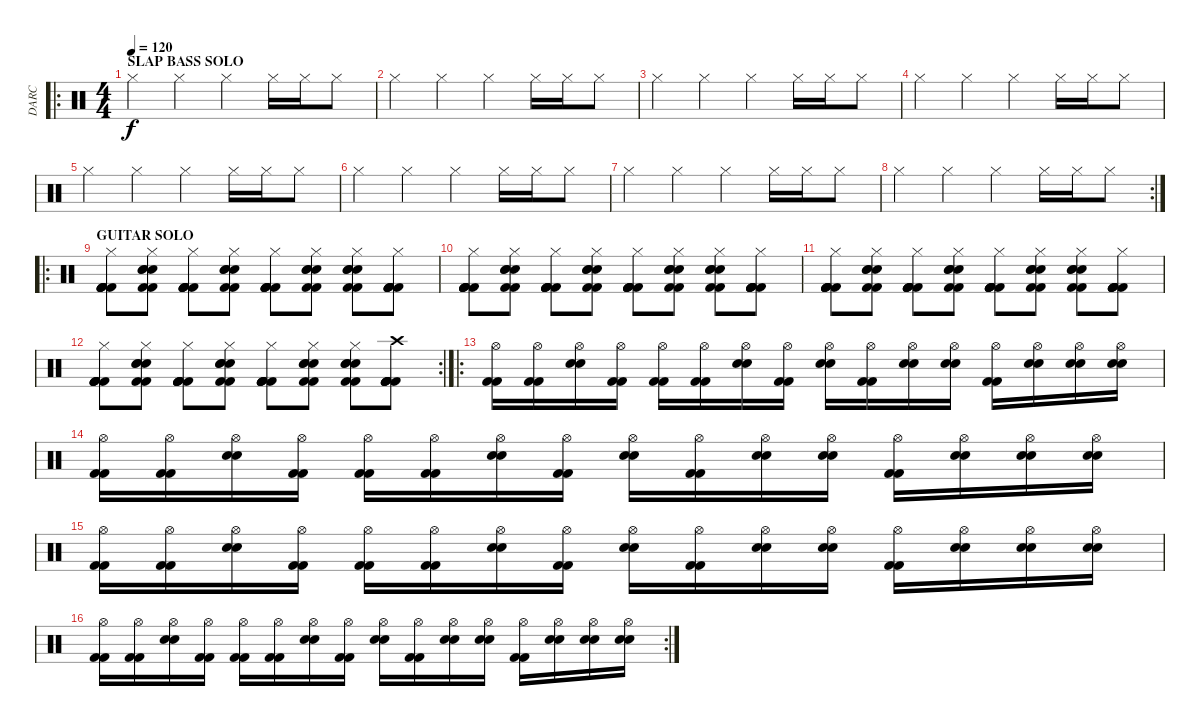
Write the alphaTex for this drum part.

\track ("DARC" "DARC") {instrument percussion}
\staff {score}
\articulation defaults
\ro
\ts (4 4)
\section ("" "SLAP BASS SOLO")
\tempo 120
\clef neutral
\ks c "Hi-Hat (closed)".4{dy f} "Hi-Hat (closed)".4 "Hi-Hat (closed)".4 "Hi-Hat (closed)".16 "Hi-Hat (closed)".16 "Hi-Hat (closed)".8
|
"Hi-Hat (closed)".4 "Hi-Hat (closed)".4 "Hi-Hat (closed)".4 "Hi-Hat (closed)".16 "Hi-Hat (closed)".16 "Hi-Hat (closed)".8 |
"Hi-Hat (closed)".4 "Hi-Hat (closed)".4 "Hi-Hat (closed)".4 "Hi-Hat (closed)".16 "Hi-Hat (closed)".16 "Hi-Hat (closed)".8 |
"Hi-Hat (closed)".4 "Hi-Hat (closed)".4 "Hi-Hat (closed)".4 "Hi-Hat (closed)".16 "Hi-Hat (closed)".16 "Hi-Hat (closed)".8 |
"Hi-Hat (closed)".4 "Hi-Hat (closed)".4 "Hi-Hat (closed)".4 "Hi-Hat (closed)".16 "Hi-Hat (closed)".16 "Hi-Hat (closed)".8 |
"Hi-Hat (closed)".4 "Hi-Hat (closed)".4 "Hi-Hat (closed)".4 "Hi-Hat (closed)".16 "Hi-Hat (closed)".16 "Hi-Hat (closed)".8 |
"Hi-Hat (closed)".4 "Hi-Hat (closed)".4 "Hi-Hat (closed)".4 "Hi-Hat (closed)".16 "Hi-Hat (closed)".16 "Hi-Hat (closed)".8 |
\rc 2 "Hi-Hat (closed)".4 "Hi-Hat (closed)".4 "Hi-Hat (closed)".4 "Hi-Hat (closed)".16 "Hi-Hat (closed)".16 "Hi-Hat (closed)".8
|
\ro
\section ("" "GUITAR SOLO")
("Kick (hit) 2" "Hi-Hat (closed)" "Kick (hit) 2" "Kick (hit) 2" "Kick (hit) 2" "Kick (hit) 2").8 ("Kick (hit) 2" "Hi-Hat (closed)" "Electric Snare (hit)" "Electric Snare (hit)" "Electric Snare (hit)" "Kick (hit) 2").8 ("Kick (hit) 2" "Hi-Hat (closed)" "Kick (hit) 2" "Kick (hit) 2" "Kick (hit) 2" "Kick (hit) 2").8 ("Kick (hit) 2" "Hi-Hat (closed)" "Electric Snare (hit)" "Electric Snare (hit)" "Electric Snare (hit)" "Kick (hit) 2").8 ("Kick (hit) 2" "Hi-Hat (closed)" "Kick (hit) 2" "Kick (hit) 2" "Kick (hit) 2" "Kick (hit) 2").8 ("Kick (hit) 2" "Hi-Hat (closed)" "Electric Snare (hit)" "Electric Snare (hit)" "Electric Snare (hit)" "Kick (hit) 2").8 ("Kick (hit) 2" "Hi-Hat (closed)" "Electric Snare (hit)" "Electric Snare (hit)" "Electric Snare (hit)" "Kick (hit) 2").8 ("Kick (hit) 2" "Hi-Hat (closed)" "Kick (hit) 2" "Kick (hit) 2" "Kick (hit) 2" "Kick (hit) 2").8 |
("Kick (hit) 2" "Hi-Hat (closed)" "Kick (hit) 2" "Kick (hit) 2" "Kick (hit) 2" "Kick (hit) 2").8 ("Kick (hit) 2" "Hi-Hat (closed)" "Electric Snare (hit)" "Electric Snare (hit)" "Electric Snare (hit)" "Kick (hit) 2").8 ("Kick (hit) 2" "Hi-Hat (closed)" "Kick (hit) 2" "Kick (hit) 2" "Kick (hit) 2" "Kick (hit) 2").8 ("Kick (hit) 2" "Hi-Hat (closed)" "Electric Snare (hit)" "Electric Snare (hit)" "Electric Snare (hit)" "Kick (hit) 2").8 ("Kick (hit) 2" "Hi-Hat (closed)" "Kick (hit) 2" "Kick (hit) 2" "Kick (hit) 2" "Kick (hit) 2").8 ("Kick (hit) 2" "Hi-Hat (closed)" "Electric Snare (hit)" "Electric Snare (hit)" "Electric Snare (hit)" "Kick (hit) 2").8 ("Kick (hit) 2" "Hi-Hat (closed)" "Electric Snare (hit)" "Electric Snare (hit)" "Electric Snare (hit)" "Kick (hit) 2").8 ("Kick (hit) 2" "Hi-Hat (closed)" "Kick (hit) 2" "Kick (hit) 2" "Kick (hit) 2" "Kick (hit) 2").8 |
("Kick (hit) 2" "Hi-Hat (closed)" "Kick (hit) 2" "Kick (hit) 2" "Kick (hit) 2" "Kick (hit) 2").8 ("Kick (hit) 2" "Hi-Hat (closed)" "Electric Snare (hit)" "Electric Snare (hit)" "Electric Snare (hit)" "Kick (hit) 2").8 ("Kick (hit) 2" "Hi-Hat (closed)" "Kick (hit) 2" "Kick (hit) 2" "Kick (hit) 2" "Kick (hit) 2").8 ("Kick (hit) 2" "Hi-Hat (closed)" "Electric Snare (hit)" "Electric Snare (hit)" "Electric Snare (hit)" "Kick (hit) 2").8 ("Kick (hit) 2" "Hi-Hat (closed)" "Kick (hit) 2" "Kick (hit) 2" "Kick (hit) 2" "Kick (hit) 2").8 ("Kick (hit) 2" "Hi-Hat (closed)" "Electric Snare (hit)" "Electric Snare (hit)" "Electric Snare (hit)" "Kick (hit) 2").8 ("Kick (hit) 2" "Hi-Hat (closed)" "Electric Snare (hit)" "Electric Snare (hit)" "Electric Snare (hit)" "Kick (hit) 2").8 ("Kick (hit) 2" "Hi-Hat (closed)" "Kick (hit) 2" "Kick (hit) 2" "Kick (hit) 2" "Kick (hit) 2").8 |
\rc 2
("Kick (hit) 2" "Hi-Hat (closed)" "Kick (hit) 2" "Kick (hit) 2" "Kick (hit) 2" "Kick (hit) 2").8 ("Kick (hit) 2" "Hi-Hat (closed)" "Electric Snare (hit)" "Electric Snare (hit)" "Electric Snare (hit)" "Kick (hit) 2").8 ("Kick (hit) 2" "Hi-Hat (closed)" "Kick (hit) 2" "Kick (hit) 2" "Kick (hit) 2" "Kick (hit) 2").8 ("Kick (hit) 2" "Hi-Hat (closed)" "Electric Snare (hit)" "Electric Snare (hit)" "Electric Snare (hit)" "Kick (hit) 2").8 ("Kick (hit) 2" "Hi-Hat (closed)" "Kick (hit) 2" "Kick (hit) 2" "Kick (hit) 2" "Kick (hit) 2").8 ("Kick (hit) 2" "Hi-Hat (closed)" "Electric Snare (hit)" "Electric Snare (hit)" "Electric Snare (hit)" "Kick (hit) 2").8 ("Kick (hit) 2" "Hi-Hat (closed)" "Electric Snare (hit)" "Electric Snare (hit)" "Electric Snare (hit)" "Kick (hit) 2").8 ("Kick (hit) 2" "Crash high (hit)" "Kick (hit) 2" "Kick (hit) 2" "Kick (hit) 2" "Kick (hit) 2").8 |
\ro
("Hi-Hat (open)" "Kick (hit) 2" "Kick (hit) 2").16 ("Hi-Hat (open)" "Kick (hit) 2" "Kick (hit) 2").16 ("Hi-Hat (open)" "Snare (hit) 2" "Snare (hit) 2").16 ("Hi-Hat (open)" "Kick (hit) 2" "Kick (hit) 2").16 ("Hi-Hat (open)" "Kick (hit) 2" "Kick (hit) 2").16 ("Hi-Hat (open)" "Kick (hit) 2" "Kick (hit) 2").16 ("Hi-Hat (open)" "Snare (hit) 2" "Snare (hit) 2").16 ("Hi-Hat (open)" "Kick (hit) 2" "Kick (hit) 2").16 ("Hi-Hat (open)" "Snare (hit) 2" "Snare (hit) 2").16 ("Hi-Hat (open)" "Kick (hit) 2" "Kick (hit) 2").16 ("Hi-Hat (open)" "Snare (hit) 2" "Snare (hit) 2").16 ("Hi-Hat (open)" "Snare (hit) 2" "Snare (hit) 2").16 ("Hi-Hat (open)" "Kick (hit) 2" "Kick (hit) 2").16 ("Hi-Hat (open)" "Snare (hit) 2" "Snare (hit) 2").16 ("Hi-Hat (open)" "Snare (hit) 2" "Snare (hit) 2").16 ("Hi-Hat (open)" "Snare (hit) 2" "Snare (hit) 2").16 |
("Hi-Hat (open)" "Kick (hit) 2" "Kick (hit) 2").16 ("Hi-Hat (open)" "Kick (hit) 2" "Kick (hit) 2").16 ("Hi-Hat (open)" "Snare (hit) 2" "Snare (hit) 2").16 ("Hi-Hat (open)" "Kick (hit) 2" "Kick (hit) 2").16 ("Hi-Hat (open)" "Kick (hit) 2" "Kick (hit) 2").16 ("Hi-Hat (open)" "Kick (hit) 2" "Kick (hit) 2").16 ("Hi-Hat (open)" "Snare (hit) 2" "Snare (hit) 2").16 ("Hi-Hat (open)" "Kick (hit) 2" "Kick (hit) 2").16 ("Hi-Hat (open)" "Snare (hit) 2" "Snare (hit) 2").16 ("Hi-Hat (open)" "Kick (hit) 2" "Kick (hit) 2").16 ("Hi-Hat (open)" "Snare (hit) 2" "Snare (hit) 2").16 ("Hi-Hat (open)" "Snare (hit) 2" "Snare (hit) 2").16 ("Hi-Hat (open)" "Kick (hit) 2" "Kick (hit) 2").16 ("Hi-Hat (open)" "Snare (hit) 2" "Snare (hit) 2").16 ("Hi-Hat (open)" "Snare (hit) 2" "Snare (hit) 2").16 ("Hi-Hat (open)" "Snare (hit) 2" "Snare (hit) 2").16 |
("Hi-Hat (open)" "Kick (hit) 2" "Kick (hit) 2").16 ("Hi-Hat (open)" "Kick (hit) 2" "Kick (hit) 2").16 ("Hi-Hat (open)" "Snare (hit) 2" "Snare (hit) 2").16 ("Hi-Hat (open)" "Kick (hit) 2" "Kick (hit) 2").16 ("Hi-Hat (open)" "Kick (hit) 2" "Kick (hit) 2").16 ("Hi-Hat (open)" "Kick (hit) 2" "Kick (hit) 2").16 ("Hi-Hat (open)" "Snare (hit) 2" "Snare (hit) 2").16 ("Hi-Hat (open)" "Kick (hit) 2" "Kick (hit) 2").16 ("Hi-Hat (open)" "Snare (hit) 2" "Snare (hit) 2").16 ("Hi-Hat (open)" "Kick (hit) 2" "Kick (hit) 2").16 ("Hi-Hat (open)" "Snare (hit) 2" "Snare (hit) 2").16 ("Hi-Hat (open)" "Snare (hit) 2" "Snare (hit) 2").16 ("Hi-Hat (open)" "Kick (hit) 2" "Kick (hit) 2").16 ("Hi-Hat (open)" "Snare (hit) 2" "Snare (hit) 2").16 ("Hi-Hat (open)" "Snare (hit) 2" "Snare (hit) 2").16 ("Hi-Hat (open)" "Snare (hit) 2" "Snare (hit) 2").16 |
\rc 2
("Hi-Hat (open)" "Kick (hit) 2" "Kick (hit) 2").16 ("Hi-Hat (open)" "Kick (hit) 2" "Kick (hit) 2").16 ("Hi-Hat (open)" "Snare (hit) 2" "Snare (hit) 2").16 ("Hi-Hat (open)" "Kick (hit) 2" "Kick (hit) 2").16 ("Hi-Hat (open)" "Kick (hit) 2" "Kick (hit) 2").16 ("Hi-Hat (open)" "Kick (hit) 2" "Kick (hit) 2").16 ("Hi-Hat (open)" "Snare (hit) 2" "Snare (hit) 2").16 ("Hi-Hat (open)" "Kick (hit) 2" "Kick (hit) 2").16 ("Hi-Hat (open)" "Snare (hit) 2" "Snare (hit) 2").16 ("Hi-Hat (open)" "Kick (hit) 2" "Kick (hit) 2").16 ("Hi-Hat (open)" "Snare (hit) 2" "Snare (hit) 2").16 ("Hi-Hat (open)" "Snare (hit) 2" "Snare (hit) 2").16 ("Hi-Hat (open)" "Kick (hit) 2" "Kick (hit) 2").16 ("Hi-Hat (open)" "Snare (hit) 2" "Snare (hit) 2").16 ("Hi-Hat (open)" "Snare (hit) 2" "Snare (hit) 2").16 ("Hi-Hat (open)" "Snare (hit) 2" "Snare (hit) 2").16
